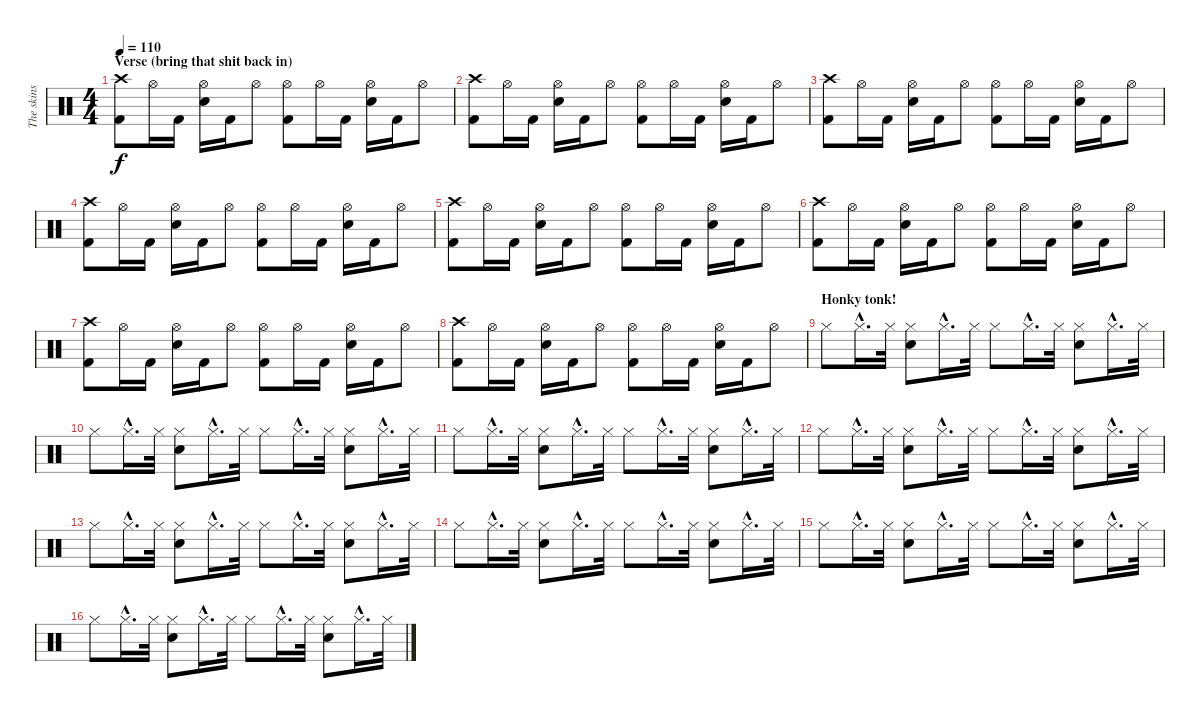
\track ("The skins" "The skins") {instrument percussion}
\staff {score}
\articulation defaults
\ts (4 4)
\section ("" "Verse (bring that shit back in)")
\tempo 110
\clef neutral
\ks c
("Crash high (hit)" "Kick (hit) 2").8{dy f} "Hi-Hat (open)".16 "Kick (hit) 2".16 ("Hi-Hat (open)" "Electric Snare (hit)").16 "Kick (hit) 2".16 "Hi-Hat (open)".8 ("Hi-Hat (open)" "Kick (hit) 2").8 "Hi-Hat (open)".16 "Kick (hit) 2".16 ("Hi-Hat (open)" "Electric Snare (hit)").16 "Kick (hit) 2".16 "Hi-Hat (open)".8 |
("Crash high (hit)" "Kick (hit) 2").8 "Hi-Hat (open)".16 "Kick (hit) 2".16 ("Hi-Hat (open)" "Electric Snare (hit)").16 "Kick (hit) 2".16 "Hi-Hat (open)".8 ("Hi-Hat (open)" "Kick (hit) 2").8 "Hi-Hat (open)".16 "Kick (hit) 2".16 ("Hi-Hat (open)" "Electric Snare (hit)").16 "Kick (hit) 2".16 "Hi-Hat (open)".8 |
("Crash high (hit)" "Kick (hit) 2").8 "Hi-Hat (open)".16 "Kick (hit) 2".16 ("Hi-Hat (open)" "Electric Snare (hit)").16 "Kick (hit) 2".16 "Hi-Hat (open)".8 ("Hi-Hat (open)" "Kick (hit) 2").8 "Hi-Hat (open)".16 "Kick (hit) 2".16 ("Hi-Hat (open)" "Electric Snare (hit)").16 "Kick (hit) 2".16 "Hi-Hat (open)".8 |
("Crash high (hit)" "Kick (hit) 2").8 "Hi-Hat (open)".16 "Kick (hit) 2".16 ("Hi-Hat (open)" "Electric Snare (hit)").16 "Kick (hit) 2".16 "Hi-Hat (open)".8 ("Hi-Hat (open)" "Kick (hit) 2").8 "Hi-Hat (open)".16 "Kick (hit) 2".16 ("Hi-Hat (open)" "Electric Snare (hit)").16 "Kick (hit) 2".16 "Hi-Hat (open)".8 |
("Crash high (hit)" "Kick (hit) 2").8 "Hi-Hat (open)".16 "Kick (hit) 2".16 ("Hi-Hat (open)" "Electric Snare (hit)").16 "Kick (hit) 2".16 "Hi-Hat (open)".8 ("Hi-Hat (open)" "Kick (hit) 2").8 "Hi-Hat (open)".16 "Kick (hit) 2".16 ("Hi-Hat (open)" "Electric Snare (hit)").16 "Kick (hit) 2".16 "Hi-Hat (open)".8 |
("Crash high (hit)" "Kick (hit) 2").8 "Hi-Hat (open)".16 "Kick (hit) 2".16 ("Hi-Hat (open)" "Electric Snare (hit)").16 "Kick (hit) 2".16 "Hi-Hat (open)".8 ("Hi-Hat (open)" "Kick (hit) 2").8 "Hi-Hat (open)".16 "Kick (hit) 2".16 ("Hi-Hat (open)" "Electric Snare (hit)").16 "Kick (hit) 2".16 "Hi-Hat (open)".8 |
("Crash high (hit)" "Kick (hit) 2").8 "Hi-Hat (open)".16 "Kick (hit) 2".16 ("Hi-Hat (open)" "Electric Snare (hit)").16 "Kick (hit) 2".16 "Hi-Hat (open)".8 ("Hi-Hat (open)" "Kick (hit) 2").8 "Hi-Hat (open)".16 "Kick (hit) 2".16 ("Hi-Hat (open)" "Electric Snare (hit)").16 "Kick (hit) 2".16 "Hi-Hat (open)".8 |
("Crash high (hit)" "Kick (hit) 2").8 "Hi-Hat (open)".16 "Kick (hit) 2".16 ("Hi-Hat (open)" "Electric Snare (hit)").16 "Kick (hit) 2".16 "Hi-Hat (open)".8 ("Hi-Hat (open)" "Kick (hit) 2").8 "Hi-Hat (open)".16 "Kick (hit) 2".16 ("Hi-Hat (open)" "Electric Snare (hit)").16 "Kick (hit) 2".16 "Hi-Hat (open)".8 |
\section ("" "Honky tonk!")
"Hi-Hat (closed)".8 "Hi-Hat (closed)"{hac}.16{d} "Hi-Hat (closed)".32 ("Hi-Hat (closed)" "Electric Snare (hit)").8 "Hi-Hat (closed)"{hac}.16{d} "Hi-Hat (closed)".32 "Hi-Hat (closed)".8 "Hi-Hat (closed)"{hac}.16{d} "Hi-Hat (closed)".32 ("Hi-Hat (closed)" "Electric Snare (hit)").8 "Hi-Hat (closed)"{hac}.16{d} "Hi-Hat (closed)".32 |
"Hi-Hat (closed)".8 "Hi-Hat (closed)"{hac}.16{d} "Hi-Hat (closed)".32 ("Hi-Hat (closed)" "Electric Snare (hit)").8 "Hi-Hat (closed)"{hac}.16{d} "Hi-Hat (closed)".32 "Hi-Hat (closed)".8 "Hi-Hat (closed)"{hac}.16{d} "Hi-Hat (closed)".32 ("Hi-Hat (closed)" "Electric Snare (hit)").8 "Hi-Hat (closed)"{hac}.16{d} "Hi-Hat (closed)".32 |
"Hi-Hat (closed)".8 "Hi-Hat (closed)"{hac}.16{d} "Hi-Hat (closed)".32 ("Hi-Hat (closed)" "Electric Snare (hit)").8 "Hi-Hat (closed)"{hac}.16{d} "Hi-Hat (closed)".32 "Hi-Hat (closed)".8 "Hi-Hat (closed)"{hac}.16{d} "Hi-Hat (closed)".32 ("Hi-Hat (closed)" "Electric Snare (hit)").8 "Hi-Hat (closed)"{hac}.16{d} "Hi-Hat (closed)".32 |
"Hi-Hat (closed)".8 "Hi-Hat (closed)"{hac}.16{d} "Hi-Hat (closed)".32 ("Hi-Hat (closed)" "Electric Snare (hit)").8 "Hi-Hat (closed)"{hac}.16{d} "Hi-Hat (closed)".32 "Hi-Hat (closed)".8 "Hi-Hat (closed)"{hac}.16{d} "Hi-Hat (closed)".32 ("Hi-Hat (closed)" "Electric Snare (hit)").8 "Hi-Hat (closed)"{hac}.16{d} "Hi-Hat (closed)".32 |
"Hi-Hat (closed)".8 "Hi-Hat (closed)"{hac}.16{d} "Hi-Hat (closed)".32 ("Hi-Hat (closed)" "Electric Snare (hit)").8 "Hi-Hat (closed)"{hac}.16{d} "Hi-Hat (closed)".32 "Hi-Hat (closed)".8 "Hi-Hat (closed)"{hac}.16{d} "Hi-Hat (closed)".32 ("Hi-Hat (closed)" "Electric Snare (hit)").8 "Hi-Hat (closed)"{hac}.16{d} "Hi-Hat (closed)".32 |
"Hi-Hat (closed)".8 "Hi-Hat (closed)"{hac}.16{d} "Hi-Hat (closed)".32 ("Hi-Hat (closed)" "Electric Snare (hit)").8 "Hi-Hat (closed)"{hac}.16{d} "Hi-Hat (closed)".32 "Hi-Hat (closed)".8 "Hi-Hat (closed)"{hac}.16{d} "Hi-Hat (closed)".32 ("Hi-Hat (closed)" "Electric Snare (hit)").8 "Hi-Hat (closed)"{hac}.16{d} "Hi-Hat (closed)".32 |
"Hi-Hat (closed)".8 "Hi-Hat (closed)"{hac}.16{d} "Hi-Hat (closed)".32 ("Hi-Hat (closed)" "Electric Snare (hit)").8 "Hi-Hat (closed)"{hac}.16{d} "Hi-Hat (closed)".32 "Hi-Hat (closed)".8 "Hi-Hat (closed)"{hac}.16{d} "Hi-Hat (closed)".32 ("Hi-Hat (closed)" "Electric Snare (hit)").8 "Hi-Hat (closed)"{hac}.16{d} "Hi-Hat (closed)".32 |
"Hi-Hat (closed)".8 "Hi-Hat (closed)"{hac}.16{d} "Hi-Hat (closed)".32 ("Hi-Hat (closed)" "Electric Snare (hit)").8 "Hi-Hat (closed)"{hac}.16{d} "Hi-Hat (closed)".32 "Hi-Hat (closed)".8 "Hi-Hat (closed)"{hac}.16{d} "Hi-Hat (closed)".32 ("Hi-Hat (closed)" "Electric Snare (hit)").8 "Hi-Hat (closed)"{hac}.16{d} "Hi-Hat (closed)".32
